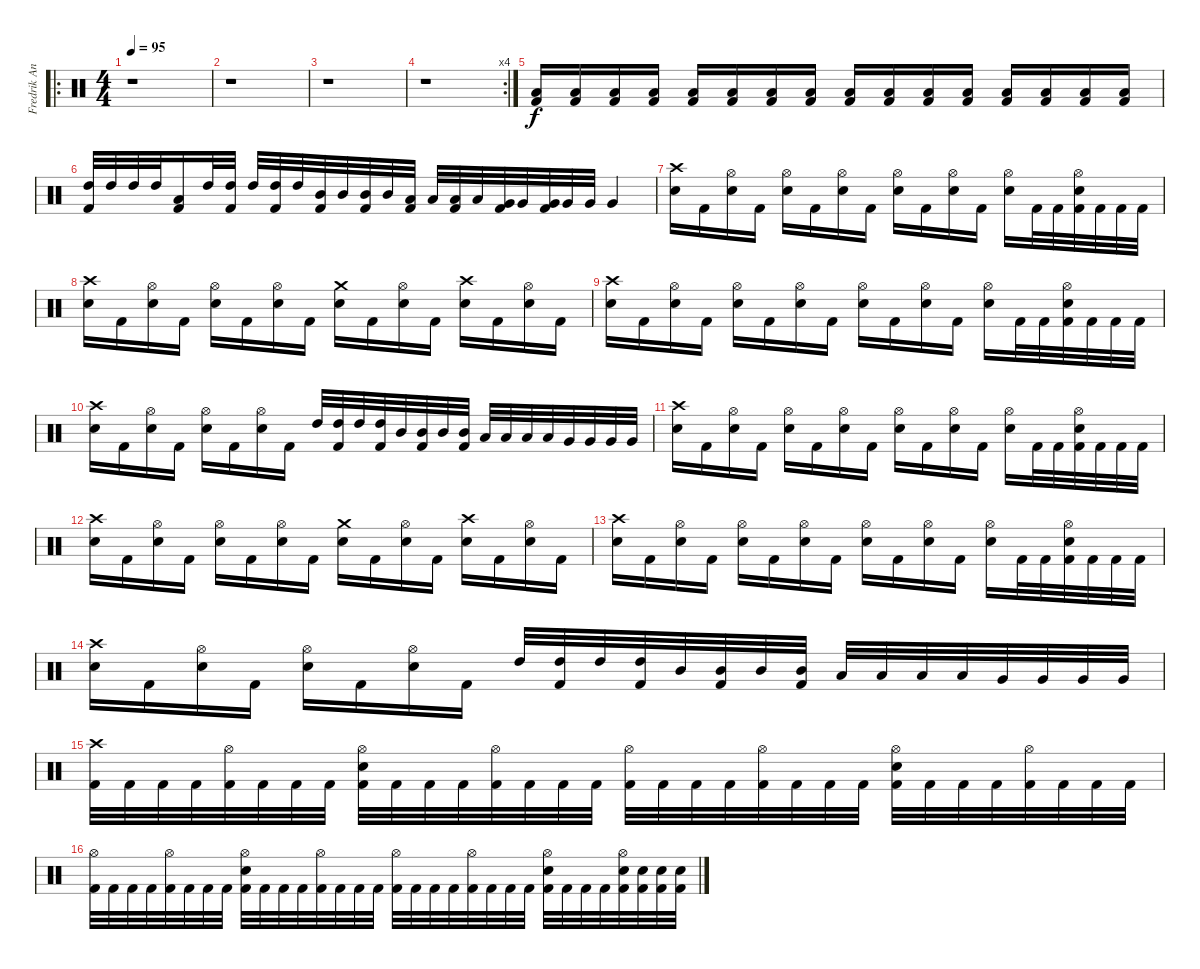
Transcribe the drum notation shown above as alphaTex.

\track ("Fredrik Andersson" "Fredrik An") {instrument percussion}
\staff {score}
\articulation defaults
\ro
\ts (4 4)
\tempo 95
\clef neutral
\ks c
r.1{dy f} |
r.1 |
r.1 |
\rc 4
r.1 |
("Low Tom (hit)" "Kick (hit) 2").16 ("Low Tom (hit)" "Kick (hit) 2").16 ("Low Tom (hit)" "Kick (hit) 2").16 ("Low Tom (hit)" "Kick (hit) 2").16 ("Low Tom (hit)" "Kick (hit) 2").16 ("Low Tom (hit)" "Kick (hit) 2").16 ("Low Tom (hit)" "Kick (hit) 2").16 ("Low Tom (hit)" "Kick (hit) 2").16 ("Low Tom (hit)" "Kick (hit) 2").16 ("Low Tom (hit)" "Kick (hit) 2").16 ("Low Tom (hit)" "Kick (hit) 2").16 ("Low Tom (hit)" "Kick (hit) 2").16 ("Low Tom (hit)" "Kick (hit) 2").16 ("Low Tom (hit)" "Kick (hit) 2").16 ("Low Tom (hit)" "Kick (hit) 2").16 ("Low Tom (hit)" "Kick (hit) 2").16 |
("High Tom (hit)" "Kick (hit) 2").32 "High Tom (hit)".32 "High Tom (hit)".32 "High Tom (hit)".32 ("Low Tom (hit)" "Kick (hit) 2").16 "High Tom (hit)".32 ("High Tom (hit)" "Kick (hit) 2").32 "High Tom (hit)".32 ("High Tom (hit)" "Kick (hit) 2").32 "High Tom (hit)".32 ("Mid Tom (hit)" "Kick (hit) 2").32 "Mid Tom (hit)".32 ("Mid Tom (hit)" "Kick (hit) 2").32 "Mid Tom (hit)".32 ("Low Tom (hit)" "Kick (hit) 2").32 "Low Tom (hit)".32 ("Low Tom (hit)" "Kick (hit) 2").32 "Low Tom (hit)".32 ("Very Low Tom (hit)" "Kick (hit) 2").32 "Very Low Tom (hit)".32 ("Very Low Tom (hit)" "Kick (hit) 2").32 "Very Low Tom (hit)".32 "Very Low Tom (hit)".32 "Very Low Tom (hit)".4 |
("Crash high (hit)" "Electric Snare (hit)").16 "Kick (hit) 2".16 ("Hi-Hat (open)" "Electric Snare (hit)").16 "Kick (hit) 2".16 ("Hi-Hat (open)" "Electric Snare (hit)").16 "Kick (hit) 2".16 ("Hi-Hat (open)" "Electric Snare (hit)").16 "Kick (hit) 2".16 ("Hi-Hat (open)" "Electric Snare (hit)").16 "Kick (hit) 2".16 ("Hi-Hat (open)" "Electric Snare (hit)").16 "Kick (hit) 2".16 ("Hi-Hat (open)" "Electric Snare (hit)").16 "Kick (hit) 2".32 "Kick (hit) 2".32 ("Hi-Hat (open)" "Electric Snare (hit)" "Kick (hit) 2").32 "Kick (hit) 2".32 "Kick (hit) 2".32 "Kick (hit) 2".32 |
("Crash high (hit)" "Electric Snare (hit)").16 "Kick (hit) 2".16 ("Hi-Hat (open)" "Electric Snare (hit)").16 "Kick (hit) 2".16 ("Hi-Hat (open)" "Electric Snare (hit)").16 "Kick (hit) 2".16 ("Hi-Hat (open)" "Electric Snare (hit)").16 "Kick (hit) 2".16 ("Crash medium (hit)" "Electric Snare (hit)").16 "Kick (hit) 2".16 ("Hi-Hat (open)" "Electric Snare (hit)").16 "Kick (hit) 2".16 ("Crash high (hit)" "Electric Snare (hit)").16 "Kick (hit) 2".16 ("Hi-Hat (open)" "Electric Snare (hit)").16 "Kick (hit) 2".16 |
("Crash high (hit)" "Electric Snare (hit)").16 "Kick (hit) 2".16 ("Hi-Hat (open)" "Electric Snare (hit)").16 "Kick (hit) 2".16 ("Hi-Hat (open)" "Electric Snare (hit)").16 "Kick (hit) 2".16 ("Hi-Hat (open)" "Electric Snare (hit)").16 "Kick (hit) 2".16 ("Hi-Hat (open)" "Electric Snare (hit)").16 "Kick (hit) 2".16 ("Hi-Hat (open)" "Electric Snare (hit)").16 "Kick (hit) 2".16 ("Hi-Hat (open)" "Electric Snare (hit)").16 "Kick (hit) 2".32 "Kick (hit) 2".32 ("Hi-Hat (open)" "Electric Snare (hit)" "Kick (hit) 2").32 "Kick (hit) 2".32 "Kick (hit) 2".32 "Kick (hit) 2".32 |
("Crash high (hit)" "Electric Snare (hit)").16 "Kick (hit) 2".16 ("Hi-Hat (open)" "Electric Snare (hit)").16 "Kick (hit) 2".16 ("Hi-Hat (open)" "Electric Snare (hit)").16 "Kick (hit) 2".16 ("Hi-Hat (open)" "Electric Snare (hit)").16 "Kick (hit) 2".16 "High Tom (hit)".32 ("High Tom (hit)" "Kick (hit) 2").32 "High Tom (hit)".32 ("High Tom (hit)" "Kick (hit) 2").32 "Mid Tom (hit)".32 ("Mid Tom (hit)" "Kick (hit) 2").32 "Mid Tom (hit)".32 ("Mid Tom (hit)" "Kick (hit) 2").32 "Low Tom (hit)".32 "Low Tom (hit)".32 "Low Tom (hit)".32 "Low Tom (hit)".32 "Very Low Tom (hit)".32 "Very Low Tom (hit)".32 "Very Low Tom (hit)".32 "Very Low Tom (hit)".32 |
("Crash high (hit)" "Electric Snare (hit)").16 "Kick (hit) 2".16 ("Hi-Hat (open)" "Electric Snare (hit)").16 "Kick (hit) 2".16 ("Hi-Hat (open)" "Electric Snare (hit)").16 "Kick (hit) 2".16 ("Hi-Hat (open)" "Electric Snare (hit)").16 "Kick (hit) 2".16 ("Hi-Hat (open)" "Electric Snare (hit)").16 "Kick (hit) 2".16 ("Hi-Hat (open)" "Electric Snare (hit)").16 "Kick (hit) 2".16 ("Hi-Hat (open)" "Electric Snare (hit)").16 "Kick (hit) 2".32 "Kick (hit) 2".32 ("Hi-Hat (open)" "Electric Snare (hit)" "Kick (hit) 2").32 "Kick (hit) 2".32 "Kick (hit) 2".32 "Kick (hit) 2".32 |
("Crash high (hit)" "Electric Snare (hit)").16 "Kick (hit) 2".16 ("Hi-Hat (open)" "Electric Snare (hit)").16 "Kick (hit) 2".16 ("Hi-Hat (open)" "Electric Snare (hit)").16 "Kick (hit) 2".16 ("Hi-Hat (open)" "Electric Snare (hit)").16 "Kick (hit) 2".16 ("Crash medium (hit)" "Electric Snare (hit)").16 "Kick (hit) 2".16 ("Hi-Hat (open)" "Electric Snare (hit)").16 "Kick (hit) 2".16 ("Crash high (hit)" "Electric Snare (hit)").16 "Kick (hit) 2".16 ("Hi-Hat (open)" "Electric Snare (hit)").16 "Kick (hit) 2".16 |
("Crash high (hit)" "Electric Snare (hit)").16 "Kick (hit) 2".16 ("Hi-Hat (open)" "Electric Snare (hit)").16 "Kick (hit) 2".16 ("Hi-Hat (open)" "Electric Snare (hit)").16 "Kick (hit) 2".16 ("Hi-Hat (open)" "Electric Snare (hit)").16 "Kick (hit) 2".16 ("Hi-Hat (open)" "Electric Snare (hit)").16 "Kick (hit) 2".16 ("Hi-Hat (open)" "Electric Snare (hit)").16 "Kick (hit) 2".16 ("Hi-Hat (open)" "Electric Snare (hit)").16 "Kick (hit) 2".32 "Kick (hit) 2".32 ("Hi-Hat (open)" "Electric Snare (hit)" "Kick (hit) 2").32 "Kick (hit) 2".32 "Kick (hit) 2".32 "Kick (hit) 2".32 |
("Crash high (hit)" "Electric Snare (hit)").16 "Kick (hit) 2".16 ("Hi-Hat (open)" "Electric Snare (hit)").16 "Kick (hit) 2".16 ("Hi-Hat (open)" "Electric Snare (hit)").16 "Kick (hit) 2".16 ("Hi-Hat (open)" "Electric Snare (hit)").16 "Kick (hit) 2".16 "High Tom (hit)".32 ("High Tom (hit)" "Kick (hit) 2").32 "High Tom (hit)".32 ("High Tom (hit)" "Kick (hit) 2").32 "Mid Tom (hit)".32 ("Mid Tom (hit)" "Kick (hit) 2").32 "Mid Tom (hit)".32 ("Mid Tom (hit)" "Kick (hit) 2").32 "Low Tom (hit)".32 "Low Tom (hit)".32 "Low Tom (hit)".32 "Low Tom (hit)".32 "Very Low Tom (hit)".32 "Very Low Tom (hit)".32 "Very Low Tom (hit)".32 "Very Low Tom (hit)".32 |
("Crash high (hit)" "Kick (hit) 2").32 "Kick (hit) 2".32 "Kick (hit) 2".32 "Kick (hit) 2".32 ("Hi-Hat (open)" "Kick (hit) 2").32 "Kick (hit) 2".32 "Kick (hit) 2".32 "Kick (hit) 2".32 ("Hi-Hat (open)" "Electric Snare (hit)" "Kick (hit) 2").32 "Kick (hit) 2".32 "Kick (hit) 2".32 "Kick (hit) 2".32 ("Hi-Hat (open)" "Kick (hit) 2").32 "Kick (hit) 2".32 "Kick (hit) 2".32 "Kick (hit) 2".32 ("Hi-Hat (open)" "Kick (hit) 2").32 "Kick (hit) 2".32 "Kick (hit) 2".32 "Kick (hit) 2".32 ("Hi-Hat (open)" "Kick (hit) 2").32 "Kick (hit) 2".32 "Kick (hit) 2".32 "Kick (hit) 2".32 ("Hi-Hat (open)" "Electric Snare (hit)" "Kick (hit) 2").32 "Kick (hit) 2".32 "Kick (hit) 2".32 "Kick (hit) 2".32 ("Hi-Hat (open)" "Kick (hit) 2").32 "Kick (hit) 2".32 "Kick (hit) 2".32 "Kick (hit) 2".32 |
("Hi-Hat (open)" "Kick (hit) 2").32 "Kick (hit) 2".32 "Kick (hit) 2".32 "Kick (hit) 2".32 ("Hi-Hat (open)" "Kick (hit) 2").32 "Kick (hit) 2".32 "Kick (hit) 2".32 "Kick (hit) 2".32 ("Hi-Hat (open)" "Electric Snare (hit)" "Kick (hit) 2").32 "Kick (hit) 2".32 "Kick (hit) 2".32 "Kick (hit) 2".32 ("Hi-Hat (open)" "Kick (hit) 2").32 "Kick (hit) 2".32 "Kick (hit) 2".32 "Kick (hit) 2".32 ("Hi-Hat (open)" "Kick (hit) 2").32 "Kick (hit) 2".32 "Kick (hit) 2".32 "Kick (hit) 2".32 ("Hi-Hat (open)" "Kick (hit) 2").32 "Kick (hit) 2".32 "Kick (hit) 2".32 "Kick (hit) 2".32 ("Hi-Hat (open)" "Electric Snare (hit)" "Kick (hit) 2").32 "Kick (hit) 2".32 "Kick (hit) 2".32 "Kick (hit) 2".32 ("Hi-Hat (open)" "Electric Snare (hit)" "Kick (hit) 2").32 ("Electric Snare (hit)" "Kick (hit) 2").32 ("Electric Snare (hit)" "Kick (hit) 2").32 ("Electric Snare (hit)" "Kick (hit) 2").32
